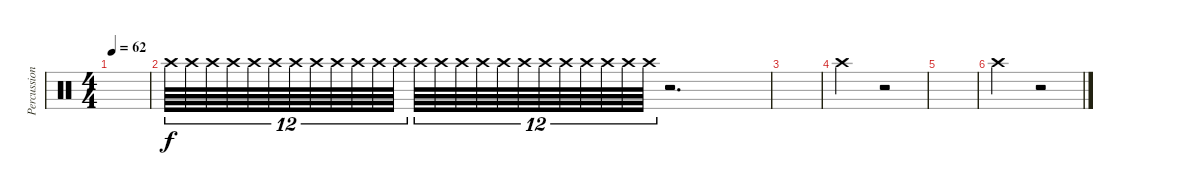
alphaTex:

\track ("Percussion" "Percussion") {instrument percussion}
\staff {score}
\articulation defaults
\ts (4 4)
\tempo 62
\clef neutral
\ks c
|
"Crash high (hit)".64{tu (12 8)} "Crash high (hit)".64{tu (12 8)} "Crash high (hit)".64{tu (12 8)} "Crash high (hit)".64{tu (12 8)} "Crash high (hit)".64{tu (12 8)} "Crash high (hit)".64{tu (12 8)} "Crash high (hit)".64{tu (12 8)} "Crash high (hit)".64{tu (12 8)} "Crash high (hit)".64{tu (12 8)} "Crash high (hit)".64{tu (12 8)} "Crash high (hit)".64{tu (12 8)} "Crash high (hit)".64{tu (12 8)} "Crash high (hit)".64{tu (12 8)} "Crash high (hit)".64{tu (12 8)} "Crash high (hit)".64{tu (12 8)} "Crash high (hit)".64{tu (12 8)} "Crash high (hit)".64{tu (12 8)} "Crash high (hit)".64{tu (12 8)} "Crash high (hit)".64{tu (12 8)} "Crash high (hit)".64{tu (12 8)} "Crash high (hit)".64{tu (12 8)} "Crash high (hit)".64{tu (12 8)} "Crash high (hit)".64{tu (12 8)} "Crash high (hit)".64{tu (12 8)} r.2{d} |
|
"Crash high (hit)".2 r.2 |
|
"Crash high (hit)".2 r.2
